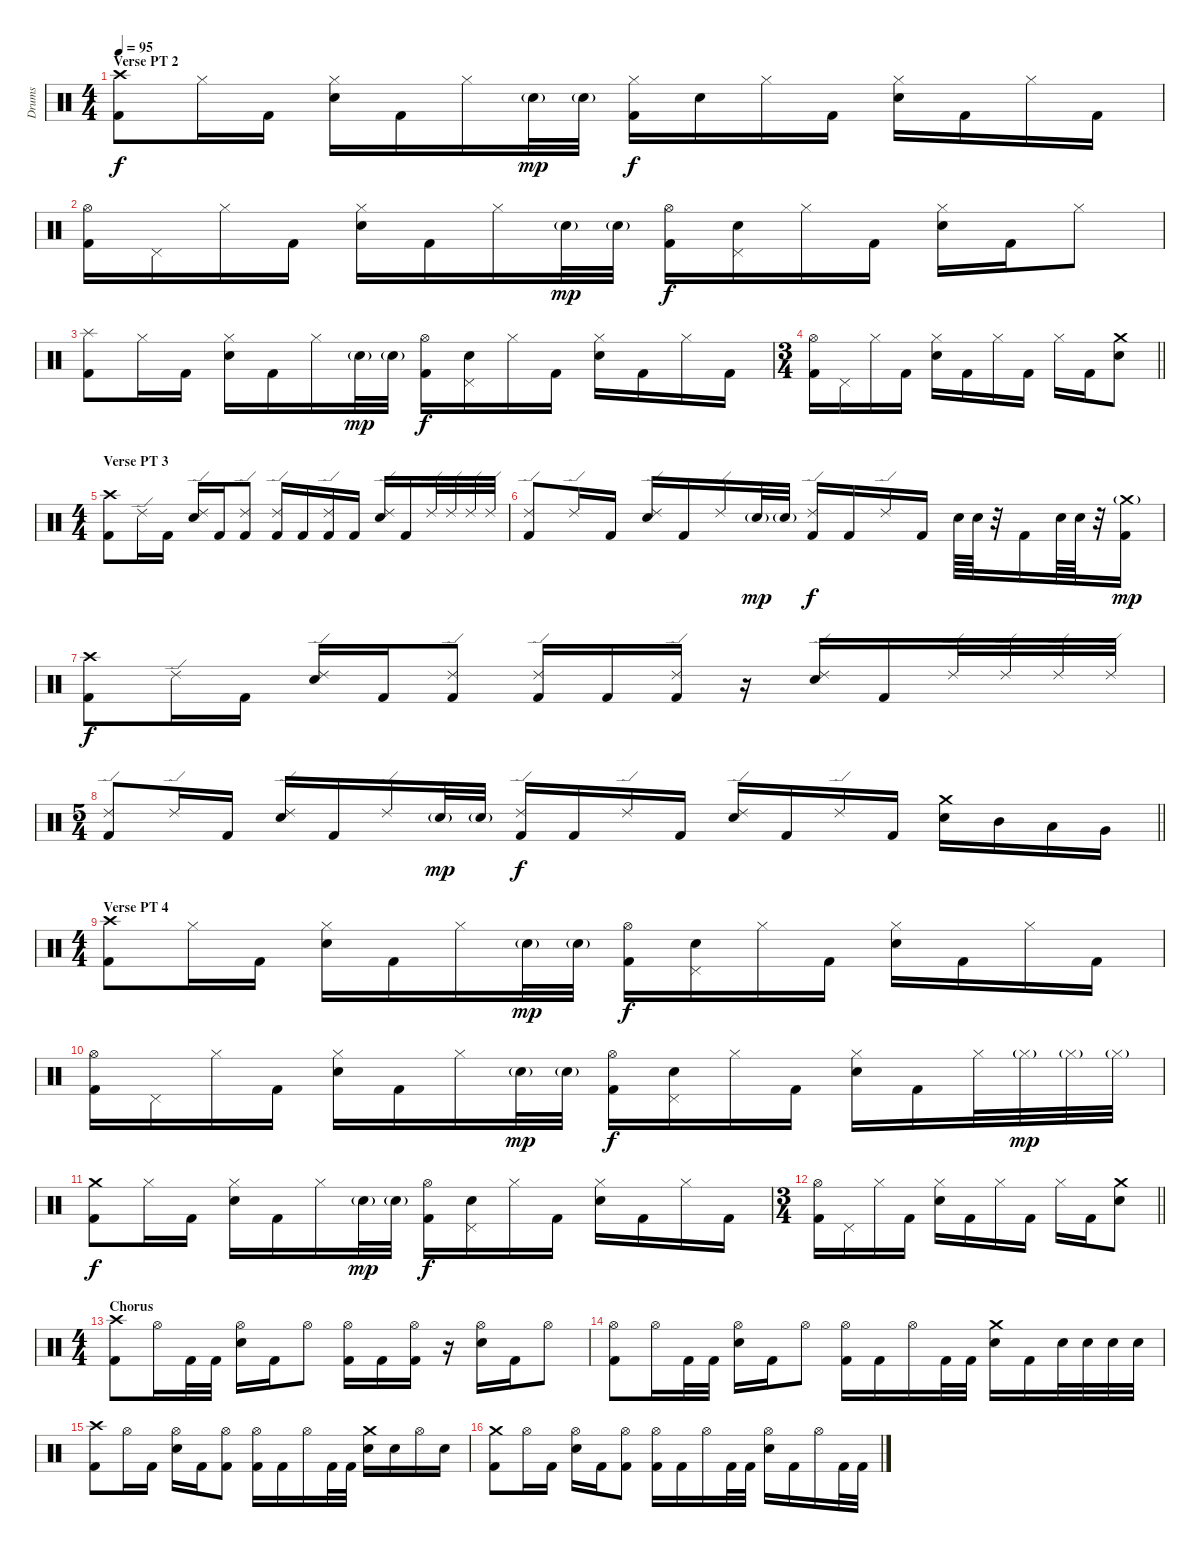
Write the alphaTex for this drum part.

\track ("Drums" "Drums") {instrument percussion}
\staff {score}
\articulation defaults
\ts (4 4)
\section ("" "Verse PT 2")
\tempo 95
\clef neutral
\ks c
("Crash high (hit)" "Kick (hit) 2").8{dy f} "Hi-Hat (closed)".16 "Kick (hit) 2".16 ("Hi-Hat (closed)" "Electric Snare (hit)").16 "Kick (hit) 2".16 "Hi-Hat (closed)".16 "Electric Snare (hit)"{g}.32{dy mp} "Electric Snare (hit)"{g}.32 ("Hi-Hat (closed)" "Kick (hit) 2").16{dy f} "Electric Snare (hit)".16 "Hi-Hat (closed)".16 "Kick (hit) 2".16 ("Hi-Hat (closed)" "Electric Snare (hit)").16 "Kick (hit) 2".16 "Hi-Hat (closed)".16 "Kick (hit) 2".16 |
("Hi-Hat (open)" "Kick (hit) 2").16 "Pedal Hi-Hat (hit)".16 "Hi-Hat (closed)".16 "Kick (hit) 2".16 ("Hi-Hat (closed)" "Electric Snare (hit)").16 "Kick (hit) 2".16 "Hi-Hat (closed)".16 "Electric Snare (hit)"{g}.32{dy mp} "Electric Snare (hit)"{g}.32 ("Hi-Hat (open)" "Kick (hit) 2").16{dy f} ("Electric Snare (hit)" "Pedal Hi-Hat (hit)").16 "Hi-Hat (closed)".16 "Kick (hit) 2".16 ("Hi-Hat (closed)" "Electric Snare (hit)").16 "Kick (hit) 2".16 "Hi-Hat (closed)".8 |
("Splash (hit)" "Kick (hit) 2").8 "Hi-Hat (closed)".16 "Kick (hit) 2".16 ("Hi-Hat (closed)" "Electric Snare (hit)").16 "Kick (hit) 2".16 "Hi-Hat (closed)".16 "Electric Snare (hit)"{g}.32{dy mp} "Electric Snare (hit)"{g}.32 ("Hi-Hat (open)" "Kick (hit) 2").16{dy f} ("Electric Snare (hit)" "Pedal Hi-Hat (hit)").16 "Hi-Hat (closed)".16 "Kick (hit) 2".16 ("Hi-Hat (closed)" "Electric Snare (hit)").16 "Kick (hit) 2".16 "Hi-Hat (closed)".16 "Kick (hit) 2".16 |
\ts (3 4)
\barLineRight lightlight
("Hi-Hat (open)" "Kick (hit) 2").16 "Pedal Hi-Hat (hit)".16 "Hi-Hat (closed)".16 "Kick (hit) 2".16 ("Hi-Hat (closed)" "Electric Snare (hit)").16 "Kick (hit) 2".16 "Hi-Hat (closed)".16 "Kick (hit) 2".16 "Hi-Hat (closed)".16 "Kick (hit) 2".16 ("Crash medium (hit)" "Electric Snare (hit)").8 |
\ts (4 4)
\section ("" "Verse PT 3")
("Crash high (hit)" "Kick (hit) 2").8 "Ride (edge) 2".16 "Kick (hit) 2".16 ("Ride (edge) 2" "Electric Snare (hit)").16 "Kick (hit) 2".16 ("Ride (edge) 2" "Kick (hit) 2").8 ("Ride (edge) 2" "Kick (hit) 2").16 "Kick (hit) 2".16 ("Ride (edge) 2" "Kick (hit) 2").16 "Kick (hit) 2".16 ("Ride (edge) 2" "Electric Snare (hit)").16 "Kick (hit) 2".16 "Ride (edge) 2".32 "Ride (edge) 2".32 "Ride (edge) 2".32 "Ride (edge) 2".32 |
("Ride (edge) 2" "Kick (hit) 2").8 "Ride (edge) 2".16 "Kick (hit) 2".16 ("Ride (edge) 2" "Electric Snare (hit)").16 "Kick (hit) 2".16 "Ride (edge) 2".16 "Electric Snare (hit)"{g}.32{dy mp} "Electric Snare (hit)"{g}.32 ("Ride (edge) 2" "Kick (hit) 2").16{dy f} "Kick (hit) 2".16 "Ride (edge) 2".16 "Kick (hit) 2".16 "Electric Snare (hit)".64 "Electric Snare (hit)".64 r.32 "Kick (hit) 2".16 "Electric Snare (hit)".64 "Electric Snare (hit)".64 r.32 ("Crash medium (hit)"{g} "Kick (hit) 2").16{dy mp} |
("Crash high (hit)" "Kick (hit) 2").8{dy f} "Ride (edge) 2".16 "Kick (hit) 2".16 ("Ride (edge) 2" "Electric Snare (hit)").16 "Kick (hit) 2".16 ("Ride (edge) 2" "Kick (hit) 2").8 ("Ride (edge) 2" "Kick (hit) 2").16 "Kick (hit) 2".16 ("Ride (edge) 2" "Kick (hit) 2").16 r.16 ("Ride (edge) 2" "Electric Snare (hit)").16 "Kick (hit) 2".16 "Ride (edge) 2".32 "Ride (edge) 2".32 "Ride (edge) 2".32 "Ride (edge) 2".32 |
\ts (5 4)
\barLineRight lightlight
("Ride (edge) 2" "Kick (hit) 2").8 "Ride (edge) 2".16 "Kick (hit) 2".16 ("Ride (edge) 2" "Electric Snare (hit)").16 "Kick (hit) 2".16 "Ride (edge) 2".16 "Electric Snare (hit)"{g}.32{dy mp} "Electric Snare (hit)"{g}.32 ("Ride (edge) 2" "Kick (hit) 2").16{dy f} "Kick (hit) 2".16 "Ride (edge) 2".16 "Kick (hit) 2".16 ("Ride (edge) 2" "Electric Snare (hit)").16 "Kick (hit) 2".16 "Ride (edge) 2".16 "Kick (hit) 2".16 ("Crash medium (hit)" "Electric Snare (hit)").16 "Mid Tom (hit)".16 "Low Tom (hit)".16 "Very Low Tom (hit)".16 |
\ts (4 4)
\section ("" "Verse PT 4")
("Crash high (hit)" "Kick (hit) 2").8 "Hi-Hat (closed)".16 "Kick (hit) 2".16 ("Hi-Hat (closed)" "Electric Snare (hit)").16 "Kick (hit) 2".16 "Hi-Hat (closed)".16 "Electric Snare (hit)"{g}.32{dy mp} "Electric Snare (hit)"{g}.32 ("Hi-Hat (open)" "Kick (hit) 2").16{dy f} ("Electric Snare (hit)" "Pedal Hi-Hat (hit)").16 "Hi-Hat (closed)".16 "Kick (hit) 2".16 ("Hi-Hat (closed)" "Electric Snare (hit)").16 "Kick (hit) 2".16 "Hi-Hat (closed)".16 "Kick (hit) 2".16 |
("Hi-Hat (open)" "Kick (hit) 2").16 "Pedal Hi-Hat (hit)".16 "Hi-Hat (closed)".16 "Kick (hit) 2".16 ("Hi-Hat (closed)" "Electric Snare (hit)").16 "Kick (hit) 2".16 "Hi-Hat (closed)".16 "Electric Snare (hit)"{g}.32{dy mp} "Electric Snare (hit)"{g}.32 ("Hi-Hat (open)" "Kick (hit) 2").16{dy f} ("Electric Snare (hit)" "Pedal Hi-Hat (hit)").16 "Hi-Hat (closed)".16 "Kick (hit) 2".16 ("Hi-Hat (closed)" "Electric Snare (hit)").16 "Kick (hit) 2".16 "Hi-Hat (closed)".32 "Hi-Hat (closed)"{g}.32{dy mp} "Hi-Hat (closed)"{g}.32 "Hi-Hat (closed)"{g}.32 |
("Crash medium (hit)" "Kick (hit) 2").8{dy f} "Hi-Hat (closed)".16 "Kick (hit) 2".16 ("Hi-Hat (closed)" "Electric Snare (hit)").16 "Kick (hit) 2".16 "Hi-Hat (closed)".16 "Electric Snare (hit)"{g}.32{dy mp} "Electric Snare (hit)"{g}.32 ("Hi-Hat (open)" "Kick (hit) 2").16{dy f} ("Electric Snare (hit)" "Pedal Hi-Hat (hit)").16 "Hi-Hat (closed)".16 "Kick (hit) 2".16 ("Hi-Hat (closed)" "Electric Snare (hit)").16 "Kick (hit) 2".16 "Hi-Hat (closed)".16 "Kick (hit) 2".16 |
\ts (3 4)
\barLineRight lightlight
("Hi-Hat (open)" "Kick (hit) 2").16 "Pedal Hi-Hat (hit)".16 "Hi-Hat (closed)".16 "Kick (hit) 2".16 ("Hi-Hat (closed)" "Electric Snare (hit)").16 "Kick (hit) 2".16 "Hi-Hat (closed)".16 "Kick (hit) 2".16 "Hi-Hat (closed)".16 "Kick (hit) 2".16 ("Crash medium (hit)" "Electric Snare (hit)").8 |
\ts (4 4)
\section ("" "Chorus")
("Crash high (hit)" "Kick (hit) 2").8 "Hi-Hat (open)".16 "Kick (hit) 2".32 "Kick (hit) 2".32 ("Hi-Hat (open)" "Electric Snare (hit)").16 "Kick (hit) 2".16 "Hi-Hat (open)".8 ("Hi-Hat (open)" "Kick (hit) 2").16 "Kick (hit) 2".16 ("Hi-Hat (open)" "Kick (hit) 2").16 r.16 ("Hi-Hat (open)" "Electric Snare (hit)").16 "Kick (hit) 2".16 "Hi-Hat (open)".8 |
("Hi-Hat (open)" "Kick (hit) 2").8 "Hi-Hat (open)".16 "Kick (hit) 2".32 "Kick (hit) 2".32 ("Hi-Hat (open)" "Electric Snare (hit)").16 "Kick (hit) 2".16 "Hi-Hat (open)".8 ("Hi-Hat (open)" "Kick (hit) 2").16 "Kick (hit) 2".16 "Hi-Hat (open)".16 "Kick (hit) 2".32 "Kick (hit) 2".32 ("Crash medium (hit)" "Electric Snare (hit)").16 "Kick (hit) 2".16 "Electric Snare (hit)".32 "Electric Snare (hit)".32 "Electric Snare (hit)".32 "Electric Snare (hit)".32 |
("Crash high (hit)" "Kick (hit) 2").8 "Hi-Hat (open)".16 "Kick (hit) 2".16 ("Hi-Hat (open)" "Electric Snare (hit)").16 "Kick (hit) 2".16 ("Hi-Hat (open)" "Kick (hit) 2").8 ("Hi-Hat (open)" "Kick (hit) 2").16 "Kick (hit) 2".16 "Hi-Hat (open)".16 "Kick (hit) 2".32 "Kick (hit) 2".32 ("Crash medium (hit)" "Electric Snare (hit)").16 "Electric Snare (hit)".16 "Hi-Hat (open)".16 "Electric Snare (hit)".16 |
("Crash medium (hit)" "Kick (hit) 2").8 "Hi-Hat (open)".16 "Kick (hit) 2".16 ("Hi-Hat (open)" "Electric Snare (hit)").16 "Kick (hit) 2".16 ("Hi-Hat (open)" "Kick (hit) 2").8 ("Hi-Hat (open)" "Kick (hit) 2").16 "Kick (hit) 2".16 "Hi-Hat (open)".16 "Kick (hit) 2".32 "Kick (hit) 2".32 ("Hi-Hat (open)" "Electric Snare (hit)").16 "Kick (hit) 2".16 "Hi-Hat (open)".16 "Kick (hit) 2".32 "Kick (hit) 2".32
